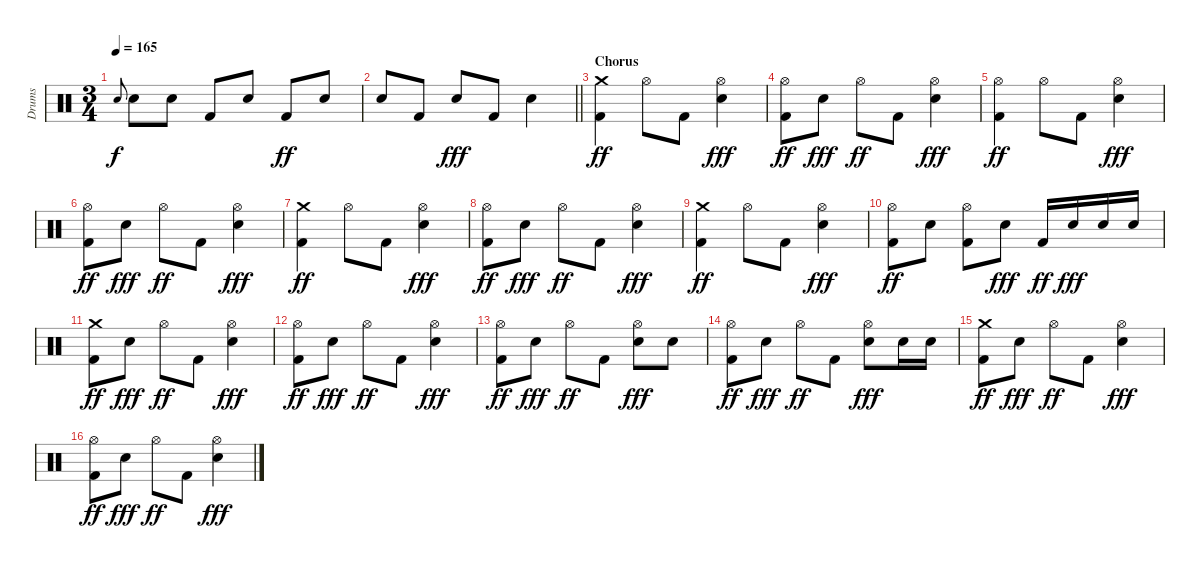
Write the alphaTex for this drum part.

\track ("Drums" "Drums") {instrument percussion}
\staff {score}
\articulation defaults
\ts (3 4)
\tempo 165
\clef neutral
\ks c "Snare (hit) 2".8{gr onbeat dy f} "Snare (hit) 2".8 "Snare (hit) 2".8 "Kick (hit) 2".8 "Snare (hit) 2".8 "Kick (hit) 2".8{dy ff} "Snare (hit) 2".8
|
\barLineRight lightlight "Snare (hit) 2".8 "Kick (hit) 2".8 "Snare (hit) 2".8{dy fff} "Kick (hit) 2".8 "Snare (hit) 2".4
|
\section ("" "Chorus")
("Crash medium (hit)" "Kick (hit) 2").4{dy ff} "Hi-Hat (open)".8 "Kick (hit) 2".8 ("Hi-Hat (open)" "Snare (hit) 2").4{dy fff} |
("Hi-Hat (open)" "Kick (hit) 2").8{dy ff} "Snare (hit) 2".8{dy fff} "Hi-Hat (open)".8{dy ff} "Kick (hit) 2".8 ("Hi-Hat (open)" "Snare (hit) 2").4{dy fff} |
("Hi-Hat (open)" "Kick (hit) 2").4{dy ff} "Hi-Hat (open)".8 "Kick (hit) 2".8 ("Hi-Hat (open)" "Snare (hit) 2").4{dy fff} |
("Hi-Hat (open)" "Kick (hit) 2").8{dy ff} "Snare (hit) 2".8{dy fff} "Hi-Hat (open)".8{dy ff} "Kick (hit) 2".8 ("Hi-Hat (open)" "Snare (hit) 2").4{dy fff} |
("Crash medium (hit)" "Kick (hit) 2").4{dy ff} "Hi-Hat (open)".8 "Kick (hit) 2".8 ("Hi-Hat (open)" "Snare (hit) 2").4{dy fff} |
("Hi-Hat (open)" "Kick (hit) 2").8{dy ff} "Snare (hit) 2".8{dy fff} "Hi-Hat (open)".8{dy ff} "Kick (hit) 2".8 ("Hi-Hat (open)" "Snare (hit) 2").4{dy fff} |
("Crash medium (hit)" "Kick (hit) 2").4{dy ff} "Hi-Hat (open)".8 "Kick (hit) 2".8 ("Hi-Hat (open)" "Snare (hit) 2").4{dy fff} |
("Hi-Hat (open)" "Kick (hit) 2").8{dy ff} "Snare (hit) 2".8 ("Hi-Hat (open)" "Kick (hit) 2").8 "Snare (hit) 2".8{dy fff} "Kick (hit) 2".16{dy ff} "Snare (hit) 2".16{dy fff} "Snare (hit) 2".16 "Snare (hit) 2".16 |
("Crash medium (hit)" "Kick (hit) 2").8{dy ff} "Snare (hit) 2".8{dy fff} "Hi-Hat (open)".8{dy ff} "Kick (hit) 2".8 ("Hi-Hat (open)" "Snare (hit) 2").4{dy fff} |
("Hi-Hat (open)" "Kick (hit) 2").8{dy ff} "Snare (hit) 2".8{dy fff} "Hi-Hat (open)".8{dy ff} "Kick (hit) 2".8 ("Hi-Hat (open)" "Snare (hit) 2").4{dy fff} |
("Hi-Hat (open)" "Kick (hit) 2").8{dy ff} "Snare (hit) 2".8{dy fff} "Hi-Hat (open)".8{dy ff} "Kick (hit) 2".8 ("Hi-Hat (open)" "Snare (hit) 2").8{dy fff} "Snare (hit) 2".8 |
("Hi-Hat (open)" "Kick (hit) 2").8{dy ff} "Snare (hit) 2".8{dy fff} "Hi-Hat (open)".8{dy ff} "Kick (hit) 2".8 ("Hi-Hat (open)" "Snare (hit) 2").8{dy fff} "Snare (hit) 2".16 "Snare (hit) 2".16 |
("Crash medium (hit)" "Kick (hit) 2").8{dy ff} "Snare (hit) 2".8{dy fff} "Hi-Hat (open)".8{dy ff} "Kick (hit) 2".8 ("Hi-Hat (open)" "Snare (hit) 2").4{dy fff} |
("Hi-Hat (open)" "Kick (hit) 2").8{dy ff} "Snare (hit) 2".8{dy fff} "Hi-Hat (open)".8{dy ff} "Kick (hit) 2".8 ("Hi-Hat (open)" "Snare (hit) 2").4{dy fff}
